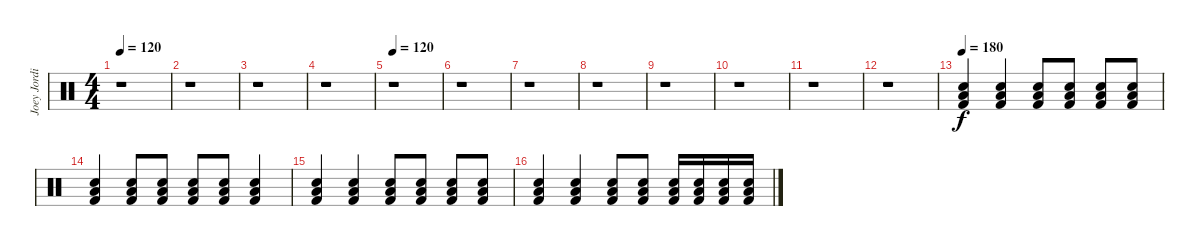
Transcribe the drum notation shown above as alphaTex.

\track ("Joey Jordison" "Joey Jordi") {instrument percussion}
\staff {score}
\articulation defaults
\ts (4 4)
\tempo 120
\clef neutral
\ks c
r.1{dy f} |
r.1 |
r.1 |
r.1 |
\tempo 120
r.1 |
r.1 |
r.1 |
r.1 |
r.1 |
r.1 |
r.1 |
r.1 |
\tempo 180
("Low Tom (hit)" "Electric Snare (hit)" "Kick (hit) 2").4 ("Low Tom (hit)" "Electric Snare (hit)" "Kick (hit) 2").4 ("Low Tom (hit)" "Electric Snare (hit)" "Kick (hit) 2").8 ("Low Tom (hit)" "Electric Snare (hit)" "Kick (hit) 2").8 ("Low Tom (hit)" "Electric Snare (hit)" "Kick (hit) 2").8 ("Low Tom (hit)" "Electric Snare (hit)" "Kick (hit) 2").8 |
("Low Tom (hit)" "Electric Snare (hit)" "Kick (hit) 2").4 ("Low Tom (hit)" "Electric Snare (hit)" "Kick (hit) 2").8 ("Low Tom (hit)" "Electric Snare (hit)" "Kick (hit) 2").8 ("Low Tom (hit)" "Electric Snare (hit)" "Kick (hit) 2").8 ("Low Tom (hit)" "Electric Snare (hit)" "Kick (hit) 2").8 ("Low Tom (hit)" "Electric Snare (hit)" "Kick (hit) 2").4 |
("Low Tom (hit)" "Electric Snare (hit)" "Kick (hit) 2").4 ("Low Tom (hit)" "Electric Snare (hit)" "Kick (hit) 2").4 ("Low Tom (hit)" "Electric Snare (hit)" "Kick (hit) 2").8 ("Low Tom (hit)" "Electric Snare (hit)" "Kick (hit) 2").8 ("Low Tom (hit)" "Electric Snare (hit)" "Kick (hit) 2").8 ("Low Tom (hit)" "Electric Snare (hit)" "Kick (hit) 2").8 |
("Low Tom (hit)" "Electric Snare (hit)" "Kick (hit) 2").4 ("Low Tom (hit)" "Electric Snare (hit)" "Kick (hit) 2").4 ("Low Tom (hit)" "Electric Snare (hit)" "Kick (hit) 2").8 ("Low Tom (hit)" "Electric Snare (hit)" "Kick (hit) 2").8 ("Low Tom (hit)" "Electric Snare (hit)" "Kick (hit) 2").16 ("Low Tom (hit)" "Electric Snare (hit)" "Kick (hit) 2").16 ("Low Tom (hit)" "Electric Snare (hit)" "Kick (hit) 2").16 ("Low Tom (hit)" "Electric Snare (hit)" "Kick (hit) 2").16
